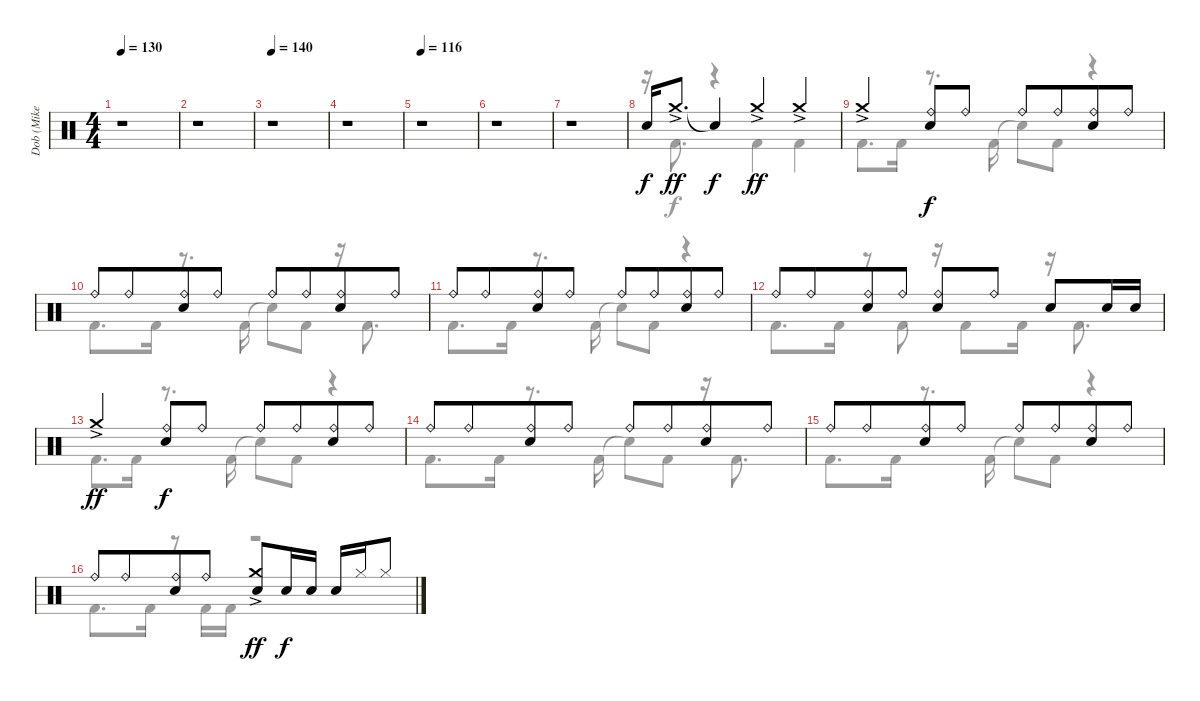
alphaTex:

\track ("Dob (Mike Terrana)" "Dob (Mike ") {instrument percussion}
\staff {score}
\articulation defaults
\voice
\ts (4 4)
\tempo 130
\clef neutral
\ks c
r.1{dy f} |
r.1 |
\tempo 140
r.1 |
r.1 |
\tempo 116
r.1 |
r.1 |
r.1 |
"Electric Snare (hit)".16 "Crash medium (hit)"{ac}.8{d dy ff} "Snare (hit)"{t}.4{dy f} "Crash medium (hit)"{ac}.4{dy ff} "Crash medium (hit)"{ac}.4 |
"Crash medium (hit)"{ac}.4 ("Ride (bell)" "Electric Snare (hit)").8{dy f} "Ride (bell)".8 "Ride (bell)".8 "Ride (bell)".8{beam merge} ("Ride (bell)" "Electric Snare (hit)").8 "Ride (bell)".8 |
"Ride (bell)".8 "Ride (bell)".8{beam merge} ("Ride (bell)" "Electric Snare (hit)").8 "Ride (bell)".8 "Ride (bell)".8 "Ride (bell)".8{beam merge} ("Ride (bell)" "Electric Snare (hit)").8 "Ride (bell)".8 |
"Ride (bell)".8 "Ride (bell)".8{beam merge} ("Ride (bell)" "Electric Snare (hit)").8 "Ride (bell)".8 "Ride (bell)".8 "Ride (bell)".8{beam merge} ("Ride (bell)" "Electric Snare (hit)").8 "Ride (bell)".8 |
"Ride (bell)".8 "Ride (bell)".8{beam merge} ("Ride (bell)" "Electric Snare (hit)").8 "Ride (bell)".8{beam split} ("Ride (bell)" "Electric Snare (hit)").8 "Ride (bell)".8 "Electric Snare (hit)".8 "Electric Snare (hit)".16 "Electric Snare (hit)".16 |
"Crash medium (hit)"{ac}.4{dy ff} ("Ride (bell)" "Electric Snare (hit)").8{dy f} "Ride (bell)".8 "Ride (bell)".8 "Ride (bell)".8{beam merge} ("Ride (bell)" "Electric Snare (hit)").8 "Ride (bell)".8 |
"Ride (bell)".8 "Ride (bell)".8{beam merge} ("Ride (bell)" "Electric Snare (hit)").8 "Ride (bell)".8 "Ride (bell)".8 "Ride (bell)".8{beam merge} ("Ride (bell)" "Electric Snare (hit)").8 "Ride (bell)".8 |
"Ride (bell)".8 "Ride (bell)".8{beam merge} ("Ride (bell)" "Electric Snare (hit)").8 "Ride (bell)".8 "Ride (bell)".8 "Ride (bell)".8{beam merge} ("Ride (bell)" "Electric Snare (hit)").8 "Ride (bell)".8 |
"Ride (bell)".8 "Ride (bell)".8{beam merge} ("Ride (bell)" "Electric Snare (hit)").8 "Ride (bell)".8 ("Crash medium (hit)"{ac} "Electric Snare (hit)").8{dy ff} "Electric Snare (hit)".16{dy f} "Electric Snare (hit)".16 "Electric Snare (hit)".16 "Hi-Hat (closed)".16 "Hi-Hat (closed)".8
\voice
\clef neutral
\ottava regular
\simile none
\ks c
r.1{dy f} |
r.1 |
r.1 |
r.1 |
r.1 |
r.1 |
r.1 |
r.16 "Kick (hit) 2".8{d} r.4 "Kick (hit) 2".4 "Kick (hit) 2".4 |
"Kick (hit) 2".8{d} "Kick (hit) 2".16 r.8{d} "Kick (hit) 2".16 "Snare (hit)"{t}.8 "Kick (hit) 2".8 r.4 |
"Kick (hit) 2".8{d} "Kick (hit) 2".16 r.8{d} "Kick (hit) 2".16 "Snare (hit)"{t}.8 "Kick (hit) 2".8 r.16 "Kick (hit) 2".8{d} |
"Kick (hit) 2".8{d} "Kick (hit) 2".16 r.8{d} "Kick (hit) 2".16 "Snare (hit)"{t}.8 "Kick (hit) 2".8 r.4 |
"Kick (hit) 2".8{d} "Kick (hit) 2".16 r.8 "Kick (hit) 2".8 r.16 "Kick (hit) 2".8 "Kick (hit) 2".16 r.16 "Kick (hit) 2".8{d} |
"Kick (hit) 2".8{d} "Kick (hit) 2".16 r.8{d} "Kick (hit) 2".16 "Snare (hit)"{t}.8 "Kick (hit) 2".8 r.4 |
"Kick (hit) 2".8{d} "Kick (hit) 2".16 r.8{d} "Kick (hit) 2".16 "Snare (hit)"{t}.8 "Kick (hit) 2".8 r.16 "Kick (hit) 2".8{d} |
"Kick (hit) 2".8{d} "Kick (hit) 2".16 r.8{d} "Kick (hit) 2".16 "Snare (hit)"{t}.8 "Kick (hit) 2".8 r.4 |
"Kick (hit) 2".8{d} "Kick (hit) 2".16 r.8 "Kick (hit) 2".16 "Kick (hit) 2".16 r.2
